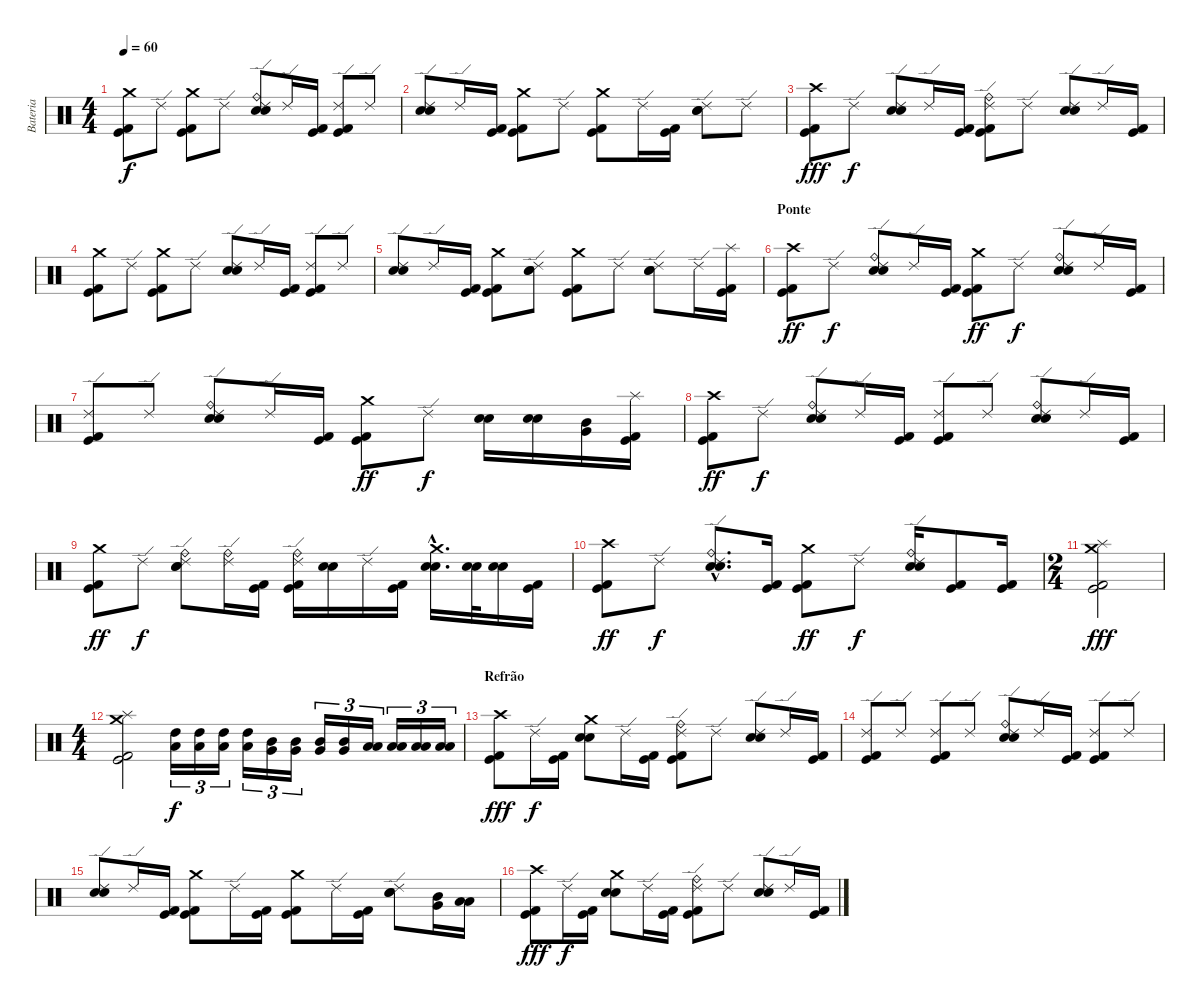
\track ("Bateria" "Bateria") {instrument percussion}
\staff {score}
\articulation defaults
\ts (4 4)
\tempo 60
\clef neutral
\ks c
("Crash medium (hit)" "Kick (hit) 2" "Kick (hit)").8{dy f} "Ride (edge) 2".8 ("Crash medium (hit)" "Kick (hit) 2" "Kick (hit)").8 "Ride (edge) 2".8 ("Ride (bell)" "Ride (edge) 2" "Electric Snare (hit)" "Snare (hit) 2").8 "Ride (edge) 2".16 ("Kick (hit) 2" "Kick (hit)").16 ("Ride (edge) 2" "Kick (hit) 2" "Kick (hit)").8 "Ride (edge) 2".8 |
("Ride (edge) 2" "Electric Snare (hit)" "Snare (hit) 2").8 "Ride (edge) 2".16 ("Kick (hit) 2" "Kick (hit)").16 ("Crash medium (hit)" "Kick (hit) 2" "Kick (hit)").8 "Ride (edge) 2".8 ("Crash medium (hit)" "Kick (hit) 2" "Kick (hit)").8 "Ride (edge) 2".16 ("Kick (hit) 2" "Kick (hit)").16 ("Ride (edge) 2" "Electric Snare (hit)" "Snare (hit) 2").8 "Ride (edge) 2".8 |
("Crash high (hit)" "Kick (hit) 2" "Kick (hit)").8{dy fff} "Ride (edge) 2".8{dy f} ("Ride (edge) 2" "Electric Snare (hit)" "Snare (hit) 2").8 "Ride (edge) 2".16 ("Kick (hit) 2" "Kick (hit)").16 ("Ride (bell)" "Ride (edge) 2" "Kick (hit) 2" "Kick (hit)").8 "Ride (edge) 2".8 ("Ride (edge) 2" "Electric Snare (hit)" "Snare (hit) 2").8 "Ride (edge) 2".16 ("Kick (hit) 2" "Kick (hit)").16 |
("Crash medium (hit)" "Kick (hit) 2" "Kick (hit)").8 "Ride (edge) 2".8 ("Crash medium (hit)" "Kick (hit) 2" "Kick (hit)").8 "Ride (edge) 2".8 ("Ride (edge) 2" "Electric Snare (hit)" "Snare (hit) 2").8 "Ride (edge) 2".16 ("Kick (hit) 2" "Kick (hit)").16 ("Ride (edge) 2" "Kick (hit) 2" "Kick (hit)").8 "Ride (edge) 2".8 |
("Ride (edge) 2" "Electric Snare (hit)" "Snare (hit) 2").8 "Ride (edge) 2".16 ("Kick (hit) 2" "Kick (hit)").16 ("Crash medium (hit)" "Kick (hit) 2" "Kick (hit)").8 ("Ride (edge) 2" "Electric Snare (hit)" "Snare (hit) 2").8 ("Crash medium (hit)" "Kick (hit) 2" "Kick (hit)").8 "Ride (edge) 2".8 ("Ride (edge) 2" "Electric Snare (hit)" "Snare (hit) 2").8 "Ride (edge) 2".16 ("Splash (hit)" "Kick (hit) 2" "Kick (hit)").16 |
\section ("" "Ponte ")
("Crash high (hit)" "Kick (hit) 2" "Kick (hit)").8{dy ff} "Ride (edge) 2".8{dy f} ("Ride (bell)" "Ride (edge) 2" "Electric Snare (hit)" "Snare (hit) 2").8 "Ride (edge) 2".16 ("Kick (hit) 2" "Kick (hit)").16 ("Crash medium (hit)" "Kick (hit) 2" "Kick (hit)").8{dy ff} "Ride (edge) 2".8{dy f} ("Ride (bell)" "Ride (edge) 2" "Electric Snare (hit)" "Snare (hit) 2").8 "Ride (edge) 2".16 ("Kick (hit) 2" "Kick (hit)").16 |
("Ride (edge) 2" "Kick (hit) 2" "Kick (hit)").8 "Ride (edge) 2".8 ("Ride (bell)" "Ride (edge) 2" "Electric Snare (hit)" "Snare (hit) 2").8 "Ride (edge) 2".16 ("Kick (hit) 2" "Kick (hit)").16 ("Crash medium (hit)" "Kick (hit) 2" "Kick (hit)").8{dy ff} "Ride (edge) 2".8{dy f} ("Electric Snare (hit)" "Snare (hit) 2").16 ("Electric Snare (hit)" "Snare (hit) 2").16 ("Mid Tom (hit)" "Very Low Tom (hit)").16 ("Splash (hit)" "Kick (hit) 2" "Kick (hit)").16 |
("Crash high (hit)" "Kick (hit) 2" "Kick (hit)").8{dy ff} "Ride (edge) 2".8{dy f} ("Ride (bell)" "Ride (edge) 2" "Electric Snare (hit)" "Snare (hit) 2").8 "Ride (edge) 2".16 ("Kick (hit) 2" "Kick (hit)").16 ("Ride (edge) 2" "Kick (hit) 2" "Kick (hit)").8 "Ride (edge) 2".8 ("Ride (bell)" "Ride (edge) 2" "Electric Snare (hit)" "Snare (hit) 2").8 "Ride (edge) 2".16 ("Kick (hit) 2" "Kick (hit)").16 |
("Crash medium (hit)" "Kick (hit) 2" "Kick (hit)").8{dy ff} "Ride (edge) 2".8{dy f} ("Ride (bell)" "Ride (edge) 2" "Electric Snare (hit)" "Snare (hit) 2").8 ("Ride (bell)" "Ride (edge) 2").16 ("Kick (hit) 2" "Kick (hit)").16 ("Ride (bell)" "Ride (edge) 2" "Kick (hit) 2" "Kick (hit)").16 ("Electric Snare (hit)" "Snare (hit) 2").16 "Ride (edge) 2".16 ("Kick (hit) 2" "Kick (hit)").16 ("Crash medium (hit)"{hac} "Electric Snare (hit)"{hac} "Snare (hit) 2"{hac}).16{d} ("Electric Snare (hit)" "Snare (hit) 2").32 ("Electric Snare (hit)" "Snare (hit) 2").16 ("Kick (hit) 2" "Kick (hit)").16 |
("Crash high (hit)" "Kick (hit) 2" "Kick (hit)").8{dy ff} "Ride (edge) 2".8{dy f} ("Ride (bell)"{hac} "Ride (edge) 2"{hac} "Electric Snare (hit)"{hac} "Snare (hit) 2"{hac}).8{d} ("Kick (hit) 2" "Kick (hit)").16 ("Crash medium (hit)" "Kick (hit) 2" "Kick (hit)").8{dy ff} "Ride (edge) 2".8{dy f} ("Ride (bell)" "Ride (edge) 2" "Electric Snare (hit)" "Snare (hit) 2").16 ("Kick (hit) 2" "Kick (hit)").8 ("Kick (hit) 2" "Kick (hit)").16 |
\ts (2 4)
("Crash medium (hit)" "Splash (hit)" "Kick (hit) 2" "Kick (hit)").2{dy fff} |
\ts (4 4)
("Crash medium (hit)" "Splash (hit)" "Kick (hit) 2" "Kick (hit)").2 ("High Tom (hit)" "Low Tom (hit)").16{tu (3 2) dy f} ("High Tom (hit)" "Low Tom (hit)").16{tu (3 2)} ("High Tom (hit)" "Low Tom (hit)").16{tu (3 2)} ("High Tom (hit)" "Low Tom (hit)").16{tu (3 2)} ("Mid Tom (hit)" "Very Low Tom (hit)").16{tu (3 2)} ("Mid Tom (hit)" "Very Low Tom (hit)").16{tu (3 2)} ("Mid Tom (hit)" "Very Low Tom (hit)").16{tu (3 2)} ("Mid Tom (hit)" "Very Low Tom (hit)").16{tu (3 2)} ("Low Tom (hit)" "Low Floor Tom (hit)").16{tu (3 2)} ("Low Tom (hit)" "Low Floor Tom (hit)").16{tu (3 2)} ("Low Tom (hit)" "Low Floor Tom (hit)").16{tu (3 2)} ("Low Tom (hit)" "Low Floor Tom (hit)").16{tu (3 2)} |
\section ("" "Refrão")
("Crash high (hit)" "Kick (hit) 2" "Kick (hit)").8{dy fff} "Ride (edge) 2".16{dy f} ("Kick (hit) 2" "Kick (hit)").16 ("Crash medium (hit)" "Electric Snare (hit)" "Snare (hit) 2").8 "Ride (edge) 2".16 ("Kick (hit) 2" "Kick (hit)").16 ("Ride (bell)" "Ride (edge) 2" "Kick (hit) 2" "Kick (hit)").8 "Ride (edge) 2".8 ("Ride (edge) 2" "Electric Snare (hit)" "Snare (hit) 2").8 "Ride (edge) 2".16 ("Kick (hit) 2" "Kick (hit)").16 |
("Ride (edge) 2" "Kick (hit) 2" "Kick (hit)").8 "Ride (edge) 2".8 ("Ride (edge) 2" "Kick (hit) 2" "Kick (hit)").8 "Ride (edge) 2".8 ("Ride (bell)" "Ride (edge) 2" "Electric Snare (hit)" "Snare (hit) 2").8 "Ride (edge) 2".16 ("Kick (hit) 2" "Kick (hit)").16 ("Ride (edge) 2" "Kick (hit) 2" "Kick (hit)").8 "Ride (edge) 2".8 |
("Ride (edge) 2" "Electric Snare (hit)" "Snare (hit) 2").8 "Ride (edge) 2".16 ("Kick (hit) 2" "Kick (hit)").16 ("Crash medium (hit)" "Kick (hit) 2" "Kick (hit)").8 "Ride (edge) 2".16 ("Kick (hit) 2" "Kick (hit)").16 ("Crash medium (hit)" "Kick (hit) 2" "Kick (hit)").8 "Ride (edge) 2".16 ("Kick (hit) 2" "Kick (hit)").16 ("Ride (edge) 2" "Electric Snare (hit)" "Snare (hit) 2").8 ("Mid Tom (hit)" "Very Low Tom (hit)").16 ("Low Tom (hit)" "Low Floor Tom (hit)").16 |
("Crash high (hit)" "Kick (hit) 2" "Kick (hit)").8{dy fff} "Ride (edge) 2".16{dy f} ("Kick (hit) 2" "Kick (hit)").16 ("Crash medium (hit)" "Electric Snare (hit)" "Snare (hit) 2").8 "Ride (edge) 2".16 ("Kick (hit) 2" "Kick (hit)").16 ("Ride (bell)" "Ride (edge) 2" "Kick (hit) 2" "Kick (hit)").8 "Ride (edge) 2".8 ("Ride (edge) 2" "Electric Snare (hit)" "Snare (hit) 2").8 "Ride (edge) 2".16 ("Kick (hit) 2" "Kick (hit)").16
